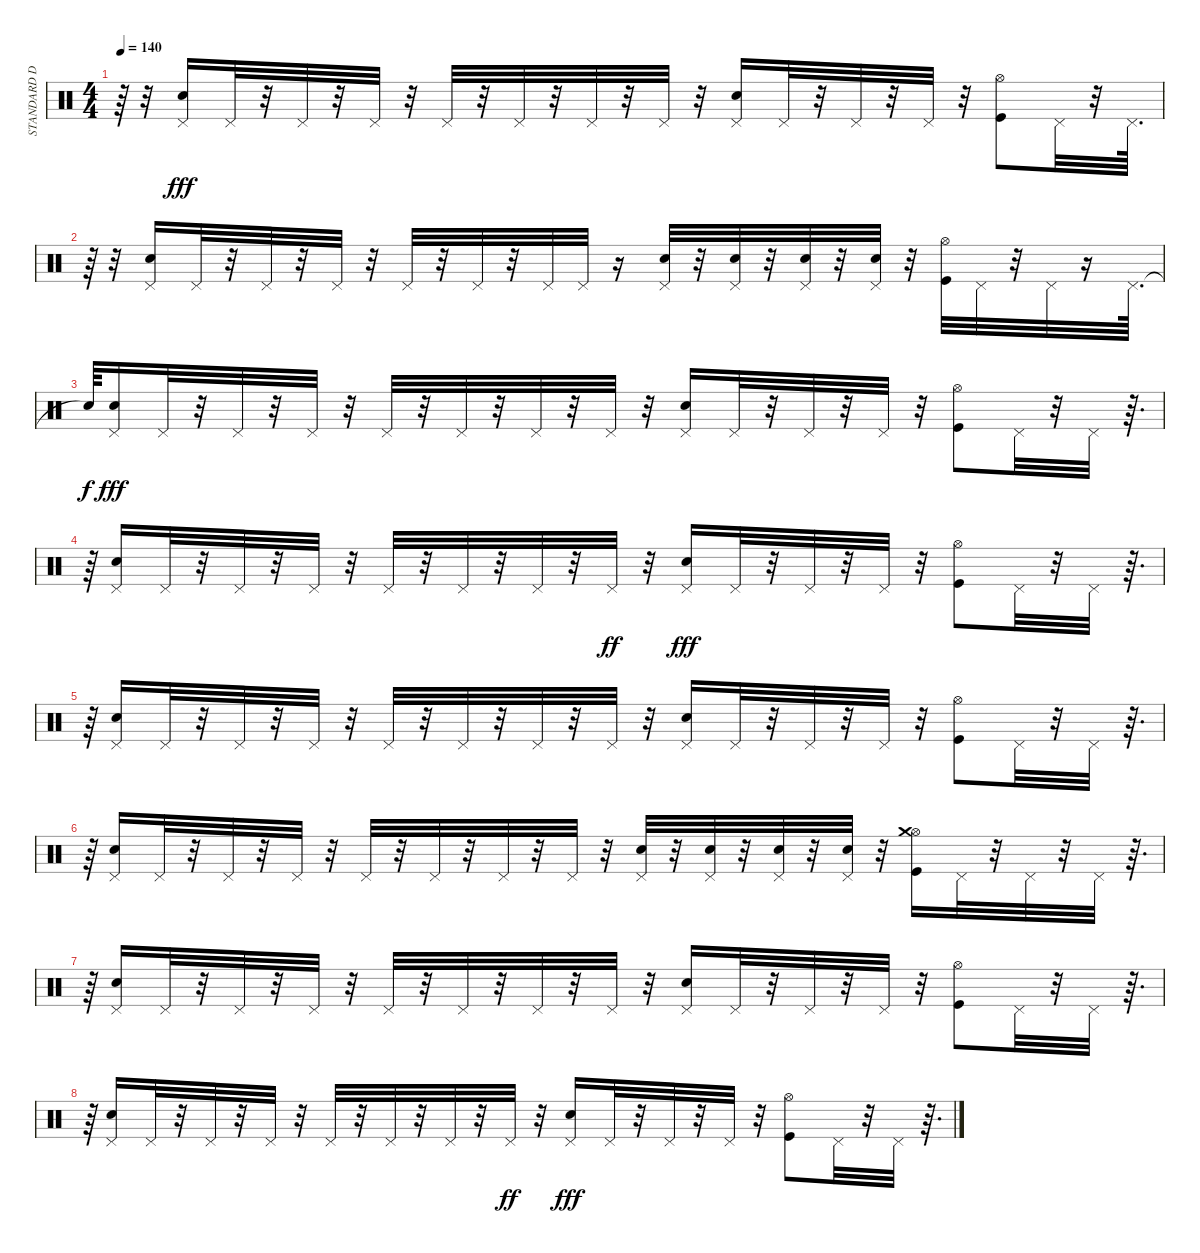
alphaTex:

\track ("STANDARD DRUMS" "STANDARD D") {instrument percussion}
\staff {score}
\articulation defaults
\ts (4 4)
\tempo 140
\clef neutral
\ks c
r.64{dy fff} r.32 ("Snare (hit) 2" "Pedal Hi-Hat (hit)").16 "Pedal Hi-Hat (hit)".32 r.32 "Pedal Hi-Hat (hit)".32 r.32 "Pedal Hi-Hat (hit)".32 r.32 "Pedal Hi-Hat (hit)".32 r.32 "Pedal Hi-Hat (hit)".32 r.32 "Pedal Hi-Hat (hit)".32 r.32 "Pedal Hi-Hat (hit)".32 r.32 ("Snare (hit) 2" "Pedal Hi-Hat (hit)").16 "Pedal Hi-Hat (hit)".32 r.32 "Pedal Hi-Hat (hit)".32 r.32 "Pedal Hi-Hat (hit)".32 r.32 ("Kick (hit)" "Hi-Hat (open)").8 "Pedal Hi-Hat (hit)".32 r.32 "Pedal Hi-Hat (hit)".64{d} |
r.64 r.32 ("Snare (hit) 2" "Pedal Hi-Hat (hit)").16 "Pedal Hi-Hat (hit)".32 r.32 "Pedal Hi-Hat (hit)".32 r.32 "Pedal Hi-Hat (hit)".32 r.32 "Pedal Hi-Hat (hit)".32 r.32 "Pedal Hi-Hat (hit)".32 r.32 "Pedal Hi-Hat (hit)".32 "Pedal Hi-Hat (hit)".32 r.16 ("Snare (hit) 2" "Pedal Hi-Hat (hit)").32 r.32 ("Snare (hit) 2" "Pedal Hi-Hat (hit)").32 r.32 ("Snare (hit) 2" "Pedal Hi-Hat (hit)").32 r.32 ("Snare (hit) 2" "Pedal Hi-Hat (hit)").32 r.32 ("Kick (hit)" "Hi-Hat (open)").32 "Pedal Hi-Hat (hit)".32 r.32 "Pedal Hi-Hat (hit)".32 r.16 "Pedal Hi-Hat (hit)".64{d} |
"Snare (hit)"{t}.64{dy f} ("Snare (hit) 2" "Pedal Hi-Hat (hit)").16{dy fff} "Pedal Hi-Hat (hit)".32 r.32 "Pedal Hi-Hat (hit)".32 r.32 "Pedal Hi-Hat (hit)".32 r.32 "Pedal Hi-Hat (hit)".32 r.32 "Pedal Hi-Hat (hit)".32 r.32 "Pedal Hi-Hat (hit)".32 r.32 "Pedal Hi-Hat (hit)".32 r.32 ("Snare (hit) 2" "Pedal Hi-Hat (hit)").16 "Pedal Hi-Hat (hit)".32 r.32 "Pedal Hi-Hat (hit)".32 r.32 "Pedal Hi-Hat (hit)".32 r.32 ("Kick (hit)" "Hi-Hat (open)").8 "Pedal Hi-Hat (hit)".32 r.32 "Pedal Hi-Hat (hit)".32 r.64{d} |
r.64 ("Snare (hit) 2" "Pedal Hi-Hat (hit)").16 "Pedal Hi-Hat (hit)".32 r.32 "Pedal Hi-Hat (hit)".32 r.32 "Pedal Hi-Hat (hit)".32 r.32 "Pedal Hi-Hat (hit)".32 r.32 "Pedal Hi-Hat (hit)".32 r.32 "Pedal Hi-Hat (hit)".32 r.32 "Pedal Hi-Hat (hit)".32{dy ff} r.32 ("Snare (hit) 2" "Pedal Hi-Hat (hit)").16{dy fff} "Pedal Hi-Hat (hit)".32 r.32 "Pedal Hi-Hat (hit)".32 r.32 "Pedal Hi-Hat (hit)".32 r.32 ("Kick (hit)" "Hi-Hat (open)").8 "Pedal Hi-Hat (hit)".32 r.32 "Pedal Hi-Hat (hit)".32 r.64{d} |
r.64 ("Snare (hit) 2" "Pedal Hi-Hat (hit)").16 "Pedal Hi-Hat (hit)".32 r.32 "Pedal Hi-Hat (hit)".32 r.32 "Pedal Hi-Hat (hit)".32 r.32 "Pedal Hi-Hat (hit)".32 r.32 "Pedal Hi-Hat (hit)".32 r.32 "Pedal Hi-Hat (hit)".32 r.32 "Pedal Hi-Hat (hit)".32 r.32 ("Snare (hit) 2" "Pedal Hi-Hat (hit)").16 "Pedal Hi-Hat (hit)".32 r.32 "Pedal Hi-Hat (hit)".32 r.32 "Pedal Hi-Hat (hit)".32 r.32 ("Kick (hit)" "Hi-Hat (open)").8 "Pedal Hi-Hat (hit)".32 r.32 "Pedal Hi-Hat (hit)".32 r.64{d} |
r.64 ("Snare (hit) 2" "Pedal Hi-Hat (hit)").16 "Pedal Hi-Hat (hit)".32 r.32 "Pedal Hi-Hat (hit)".32 r.32 "Pedal Hi-Hat (hit)".32 r.32 "Pedal Hi-Hat (hit)".32 r.32 "Pedal Hi-Hat (hit)".32 r.32 "Pedal Hi-Hat (hit)".32 r.32 "Pedal Hi-Hat (hit)".32 r.32 ("Snare (hit) 2" "Pedal Hi-Hat (hit)").32 r.32 ("Snare (hit) 2" "Pedal Hi-Hat (hit)").32 r.32 ("Snare (hit) 2" "Pedal Hi-Hat (hit)").32 r.32 ("Snare (hit) 2" "Pedal Hi-Hat (hit)").32 r.32 ("Kick (hit)" "Hi-Hat (open)" "Crash medium (hit)").16 "Pedal Hi-Hat (hit)".32 r.32 "Pedal Hi-Hat (hit)".32 r.32 "Pedal Hi-Hat (hit)".32 r.64{d} |
r.64 ("Snare (hit) 2" "Pedal Hi-Hat (hit)").16 "Pedal Hi-Hat (hit)".32 r.32 "Pedal Hi-Hat (hit)".32 r.32 "Pedal Hi-Hat (hit)".32 r.32 "Pedal Hi-Hat (hit)".32 r.32 "Pedal Hi-Hat (hit)".32 r.32 "Pedal Hi-Hat (hit)".32 r.32 "Pedal Hi-Hat (hit)".32 r.32 ("Snare (hit) 2" "Pedal Hi-Hat (hit)").16 "Pedal Hi-Hat (hit)".32 r.32 "Pedal Hi-Hat (hit)".32 r.32 "Pedal Hi-Hat (hit)".32 r.32 ("Kick (hit)" "Hi-Hat (open)").8 "Pedal Hi-Hat (hit)".32 r.32 "Pedal Hi-Hat (hit)".32 r.64{d} |
r.64 ("Snare (hit) 2" "Pedal Hi-Hat (hit)").16 "Pedal Hi-Hat (hit)".32 r.32 "Pedal Hi-Hat (hit)".32 r.32 "Pedal Hi-Hat (hit)".32 r.32 "Pedal Hi-Hat (hit)".32 r.32 "Pedal Hi-Hat (hit)".32 r.32 "Pedal Hi-Hat (hit)".32 r.32 "Pedal Hi-Hat (hit)".32{dy ff} r.32 ("Snare (hit) 2" "Pedal Hi-Hat (hit)").16{dy fff} "Pedal Hi-Hat (hit)".32 r.32 "Pedal Hi-Hat (hit)".32 r.32 "Pedal Hi-Hat (hit)".32 r.32 ("Kick (hit)" "Hi-Hat (open)").8 "Pedal Hi-Hat (hit)".32 r.32 "Pedal Hi-Hat (hit)".32 r.64{d}
